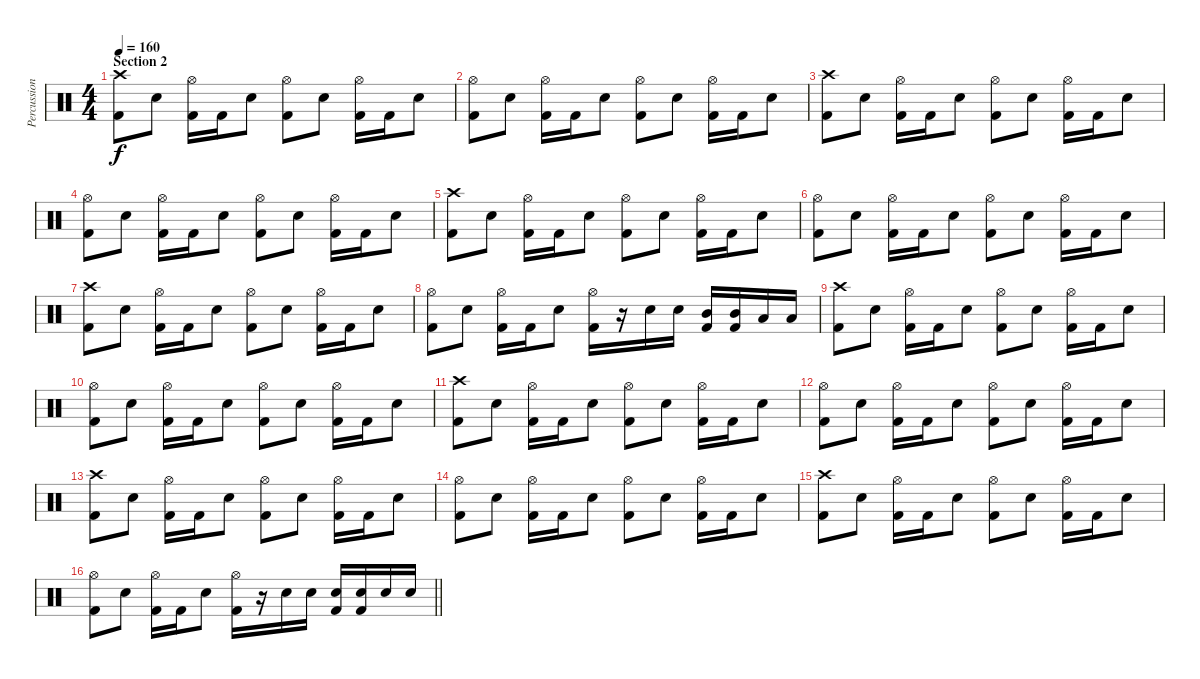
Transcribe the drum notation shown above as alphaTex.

\track ("Percussion" "Percussion") {instrument percussion}
\staff {score}
\articulation defaults
\ts (4 4)
\section ("" "Section 2")
\tempo 160
\clef neutral
\ks c
("Crash high (hit)" "Kick (hit) 2").8{dy f} "Snare (hit) 2".8 ("Hi-Hat (open)" "Kick (hit) 2").16 "Kick (hit) 2".16 "Snare (hit) 2".8 ("Hi-Hat (open)" "Kick (hit) 2").8 "Snare (hit) 2".8 ("Hi-Hat (open)" "Kick (hit) 2").16 "Kick (hit) 2".16 "Snare (hit) 2".8 |
("Hi-Hat (open)" "Kick (hit) 2").8 "Snare (hit) 2".8 ("Hi-Hat (open)" "Kick (hit) 2").16 "Kick (hit) 2".16 "Snare (hit) 2".8 ("Hi-Hat (open)" "Kick (hit) 2").8 "Snare (hit) 2".8 ("Hi-Hat (open)" "Kick (hit) 2").16 "Kick (hit) 2".16 "Snare (hit) 2".8 |
("Crash high (hit)" "Kick (hit) 2").8 "Snare (hit) 2".8 ("Hi-Hat (open)" "Kick (hit) 2").16 "Kick (hit) 2".16 "Snare (hit) 2".8 ("Hi-Hat (open)" "Kick (hit) 2").8 "Snare (hit) 2".8 ("Hi-Hat (open)" "Kick (hit) 2").16 "Kick (hit) 2".16 "Snare (hit) 2".8 |
("Hi-Hat (open)" "Kick (hit) 2").8 "Snare (hit) 2".8 ("Hi-Hat (open)" "Kick (hit) 2").16 "Kick (hit) 2".16 "Snare (hit) 2".8 ("Hi-Hat (open)" "Kick (hit) 2").8 "Snare (hit) 2".8 ("Hi-Hat (open)" "Kick (hit) 2").16 "Kick (hit) 2".16 "Snare (hit) 2".8 |
("Crash high (hit)" "Kick (hit) 2").8 "Snare (hit) 2".8 ("Hi-Hat (open)" "Kick (hit) 2").16 "Kick (hit) 2".16 "Snare (hit) 2".8 ("Hi-Hat (open)" "Kick (hit) 2").8 "Snare (hit) 2".8 ("Hi-Hat (open)" "Kick (hit) 2").16 "Kick (hit) 2".16 "Snare (hit) 2".8 |
("Hi-Hat (open)" "Kick (hit) 2").8 "Snare (hit) 2".8 ("Hi-Hat (open)" "Kick (hit) 2").16 "Kick (hit) 2".16 "Snare (hit) 2".8 ("Hi-Hat (open)" "Kick (hit) 2").8 "Snare (hit) 2".8 ("Hi-Hat (open)" "Kick (hit) 2").16 "Kick (hit) 2".16 "Snare (hit) 2".8 |
("Crash high (hit)" "Kick (hit) 2").8 "Snare (hit) 2".8 ("Hi-Hat (open)" "Kick (hit) 2").16 "Kick (hit) 2".16 "Snare (hit) 2".8 ("Hi-Hat (open)" "Kick (hit) 2").8 "Snare (hit) 2".8 ("Hi-Hat (open)" "Kick (hit) 2").16 "Kick (hit) 2".16 "Snare (hit) 2".8 |
("Hi-Hat (open)" "Kick (hit) 2").8 "Snare (hit) 2".8 ("Hi-Hat (open)" "Kick (hit) 2").16 "Kick (hit) 2".16 "Snare (hit) 2".8 ("Hi-Hat (open)" "Kick (hit) 2").16 r.16 "Snare (hit) 2".16 "Snare (hit) 2".16 ("Mid Tom (hit)" "Kick (hit) 2").16 ("Mid Tom (hit)" "Kick (hit) 2").16 "Low Tom (hit)".16 "Low Tom (hit)".16 |
("Crash high (hit)" "Kick (hit) 2").8 "Snare (hit) 2".8 ("Hi-Hat (open)" "Kick (hit) 2").16 "Kick (hit) 2".16 "Snare (hit) 2".8 ("Hi-Hat (open)" "Kick (hit) 2").8 "Snare (hit) 2".8 ("Hi-Hat (open)" "Kick (hit) 2").16 "Kick (hit) 2".16 "Snare (hit) 2".8 |
("Hi-Hat (open)" "Kick (hit) 2").8 "Snare (hit) 2".8 ("Hi-Hat (open)" "Kick (hit) 2").16 "Kick (hit) 2".16 "Snare (hit) 2".8 ("Hi-Hat (open)" "Kick (hit) 2").8 "Snare (hit) 2".8 ("Hi-Hat (open)" "Kick (hit) 2").16 "Kick (hit) 2".16 "Snare (hit) 2".8 |
("Crash high (hit)" "Kick (hit) 2").8 "Snare (hit) 2".8 ("Hi-Hat (open)" "Kick (hit) 2").16 "Kick (hit) 2".16 "Snare (hit) 2".8 ("Hi-Hat (open)" "Kick (hit) 2").8 "Snare (hit) 2".8 ("Hi-Hat (open)" "Kick (hit) 2").16 "Kick (hit) 2".16 "Snare (hit) 2".8 |
("Hi-Hat (open)" "Kick (hit) 2").8 "Snare (hit) 2".8 ("Hi-Hat (open)" "Kick (hit) 2").16 "Kick (hit) 2".16 "Snare (hit) 2".8 ("Hi-Hat (open)" "Kick (hit) 2").8 "Snare (hit) 2".8 ("Hi-Hat (open)" "Kick (hit) 2").16 "Kick (hit) 2".16 "Snare (hit) 2".8 |
("Crash high (hit)" "Kick (hit) 2").8 "Snare (hit) 2".8 ("Hi-Hat (open)" "Kick (hit) 2").16 "Kick (hit) 2".16 "Snare (hit) 2".8 ("Hi-Hat (open)" "Kick (hit) 2").8 "Snare (hit) 2".8 ("Hi-Hat (open)" "Kick (hit) 2").16 "Kick (hit) 2".16 "Snare (hit) 2".8 |
("Hi-Hat (open)" "Kick (hit) 2").8 "Snare (hit) 2".8 ("Hi-Hat (open)" "Kick (hit) 2").16 "Kick (hit) 2".16 "Snare (hit) 2".8 ("Hi-Hat (open)" "Kick (hit) 2").8 "Snare (hit) 2".8 ("Hi-Hat (open)" "Kick (hit) 2").16 "Kick (hit) 2".16 "Snare (hit) 2".8 |
("Crash high (hit)" "Kick (hit) 2").8 "Snare (hit) 2".8 ("Hi-Hat (open)" "Kick (hit) 2").16 "Kick (hit) 2".16 "Snare (hit) 2".8 ("Hi-Hat (open)" "Kick (hit) 2").8 "Snare (hit) 2".8 ("Hi-Hat (open)" "Kick (hit) 2").16 "Kick (hit) 2".16 "Snare (hit) 2".8 |
\barLineRight lightlight
("Hi-Hat (open)" "Kick (hit) 2").8 "Snare (hit) 2".8 ("Hi-Hat (open)" "Kick (hit) 2").16 "Kick (hit) 2".16 "Snare (hit) 2".8 ("Hi-Hat (open)" "Kick (hit) 2").16 r.16 "Snare (hit) 2".16 "Snare (hit) 2".16 ("Snare (hit) 2" "Kick (hit) 2").16 ("Snare (hit) 2" "Kick (hit) 2").16 "Snare (hit) 2".16 "Snare (hit) 2".16
